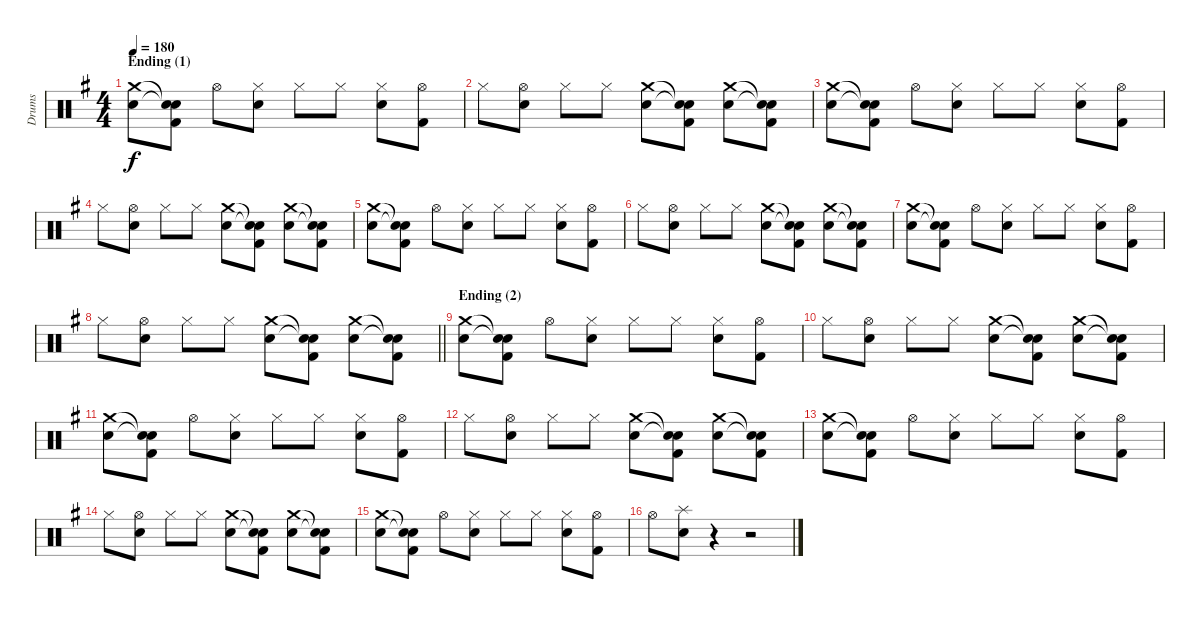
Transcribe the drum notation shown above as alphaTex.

\track ("Drums" "Drums") {instrument percussion}
\staff {score}
\articulation defaults
\ts (4 4)
\section ("" "Ending (1)")
\tempo 180
\clef neutral
\ks g
("Crash medium (hit)" "Electric Snare (hit)").8{dy f} ("Snare (hit)"{t} "Snare (hit)"{t} "Kick (hit) 2").8 "Hi-Hat (open)".8 ("Hi-Hat (closed)" "Electric Snare (hit)").8 "Hi-Hat (closed)".8 "Hi-Hat (closed)".8 ("Hi-Hat (closed)" "Electric Snare (hit)").8 ("Hi-Hat (open)" "Kick (hit) 2").8 |
"Hi-Hat (closed)".8 ("Hi-Hat (open)" "Electric Snare (hit)").8 "Hi-Hat (closed)".8 "Hi-Hat (closed)".8 ("Crash medium (hit)" "Electric Snare (hit)").8 ("Snare (hit)"{t} "Snare (hit)"{t} "Kick (hit) 2").8 ("Crash medium (hit)" "Electric Snare (hit)").8 ("Snare (hit)"{t} "Snare (hit)"{t} "Kick (hit) 2").8 |
("Crash medium (hit)" "Electric Snare (hit)").8 ("Snare (hit)"{t} "Snare (hit)"{t} "Kick (hit) 2").8 "Hi-Hat (open)".8 ("Hi-Hat (closed)" "Electric Snare (hit)").8 "Hi-Hat (closed)".8 "Hi-Hat (closed)".8 ("Hi-Hat (closed)" "Electric Snare (hit)").8 ("Hi-Hat (open)" "Kick (hit) 2").8 |
"Hi-Hat (closed)".8 ("Hi-Hat (open)" "Electric Snare (hit)").8 "Hi-Hat (closed)".8 "Hi-Hat (closed)".8 ("Crash medium (hit)" "Electric Snare (hit)").8 ("Snare (hit)"{t} "Snare (hit)"{t} "Kick (hit) 2").8 ("Crash medium (hit)" "Electric Snare (hit)").8 ("Snare (hit)"{t} "Snare (hit)"{t} "Kick (hit) 2").8 |
("Crash medium (hit)" "Electric Snare (hit)").8 ("Snare (hit)"{t} "Snare (hit)"{t} "Kick (hit) 2").8 "Hi-Hat (open)".8 ("Hi-Hat (closed)" "Electric Snare (hit)").8 "Hi-Hat (closed)".8 "Hi-Hat (closed)".8 ("Hi-Hat (closed)" "Electric Snare (hit)").8 ("Hi-Hat (open)" "Kick (hit) 2").8 |
"Hi-Hat (closed)".8 ("Hi-Hat (open)" "Electric Snare (hit)").8 "Hi-Hat (closed)".8 "Hi-Hat (closed)".8 ("Crash medium (hit)" "Electric Snare (hit)").8 ("Snare (hit)"{t} "Snare (hit)"{t} "Kick (hit) 2").8 ("Crash medium (hit)" "Electric Snare (hit)").8 ("Snare (hit)"{t} "Snare (hit)"{t} "Kick (hit) 2").8 |
("Crash medium (hit)" "Electric Snare (hit)").8 ("Snare (hit)"{t} "Snare (hit)"{t} "Kick (hit) 2").8 "Hi-Hat (open)".8 ("Hi-Hat (closed)" "Electric Snare (hit)").8 "Hi-Hat (closed)".8 "Hi-Hat (closed)".8 ("Hi-Hat (closed)" "Electric Snare (hit)").8 ("Hi-Hat (open)" "Kick (hit) 2").8 |
\barLineRight lightlight "Hi-Hat (closed)".8
("Hi-Hat (open)" "Electric Snare (hit)").8 "Hi-Hat (closed)".8 "Hi-Hat (closed)".8 ("Crash medium (hit)" "Electric Snare (hit)").8 ("Snare (hit)"{t} "Snare (hit)"{t} "Kick (hit) 2").8 ("Crash medium (hit)" "Electric Snare (hit)").8 ("Snare (hit)"{t} "Snare (hit)"{t} "Kick (hit) 2").8 |
\section ("" "Ending (2)")
("Crash medium (hit)" "Electric Snare (hit)").8 ("Snare (hit)"{t} "Snare (hit)"{t} "Kick (hit) 2").8 "Hi-Hat (open)".8 ("Hi-Hat (closed)" "Electric Snare (hit)").8 "Hi-Hat (closed)".8 "Hi-Hat (closed)".8 ("Hi-Hat (closed)" "Electric Snare (hit)").8 ("Hi-Hat (open)" "Kick (hit) 2").8 |
"Hi-Hat (closed)".8 ("Hi-Hat (open)" "Electric Snare (hit)").8 "Hi-Hat (closed)".8 "Hi-Hat (closed)".8 ("Crash medium (hit)" "Electric Snare (hit)").8 ("Snare (hit)"{t} "Snare (hit)"{t} "Kick (hit) 2").8 ("Crash medium (hit)" "Electric Snare (hit)").8 ("Snare (hit)"{t} "Snare (hit)"{t} "Kick (hit) 2").8 |
("Crash medium (hit)" "Electric Snare (hit)").8 ("Snare (hit)"{t} "Snare (hit)"{t} "Kick (hit) 2").8 "Hi-Hat (open)".8 ("Hi-Hat (closed)" "Electric Snare (hit)").8 "Hi-Hat (closed)".8 "Hi-Hat (closed)".8 ("Hi-Hat (closed)" "Electric Snare (hit)").8 ("Hi-Hat (open)" "Kick (hit) 2").8 |
"Hi-Hat (closed)".8 ("Hi-Hat (open)" "Electric Snare (hit)").8 "Hi-Hat (closed)".8 "Hi-Hat (closed)".8 ("Crash medium (hit)" "Electric Snare (hit)").8 ("Snare (hit)"{t} "Snare (hit)"{t} "Kick (hit) 2").8 ("Crash medium (hit)" "Electric Snare (hit)").8 ("Snare (hit)"{t} "Snare (hit)"{t} "Kick (hit) 2").8 |
("Crash medium (hit)" "Electric Snare (hit)").8 ("Snare (hit)"{t} "Snare (hit)"{t} "Kick (hit) 2").8 "Hi-Hat (open)".8 ("Hi-Hat (closed)" "Electric Snare (hit)").8 "Hi-Hat (closed)".8 "Hi-Hat (closed)".8 ("Hi-Hat (closed)" "Electric Snare (hit)").8 ("Hi-Hat (open)" "Kick (hit) 2").8 |
"Hi-Hat (closed)".8 ("Hi-Hat (open)" "Electric Snare (hit)").8 "Hi-Hat (closed)".8 "Hi-Hat (closed)".8 ("Crash medium (hit)" "Electric Snare (hit)").8 ("Snare (hit)"{t} "Snare (hit)"{t} "Kick (hit) 2").8 ("Crash medium (hit)" "Electric Snare (hit)").8 ("Snare (hit)"{t} "Snare (hit)"{t} "Kick (hit) 2").8 |
("Crash medium (hit)" "Electric Snare (hit)").8 ("Snare (hit)"{t} "Snare (hit)"{t} "Kick (hit) 2").8 "Hi-Hat (open)".8 ("Hi-Hat (closed)" "Electric Snare (hit)").8 "Hi-Hat (closed)".8 "Hi-Hat (closed)".8 ("Hi-Hat (closed)" "Electric Snare (hit)").8 ("Hi-Hat (open)" "Kick (hit) 2").8 |
"Hi-Hat (open)".8 ("Splash (hit)" "Electric Snare (hit)").8 r.4 r.2
